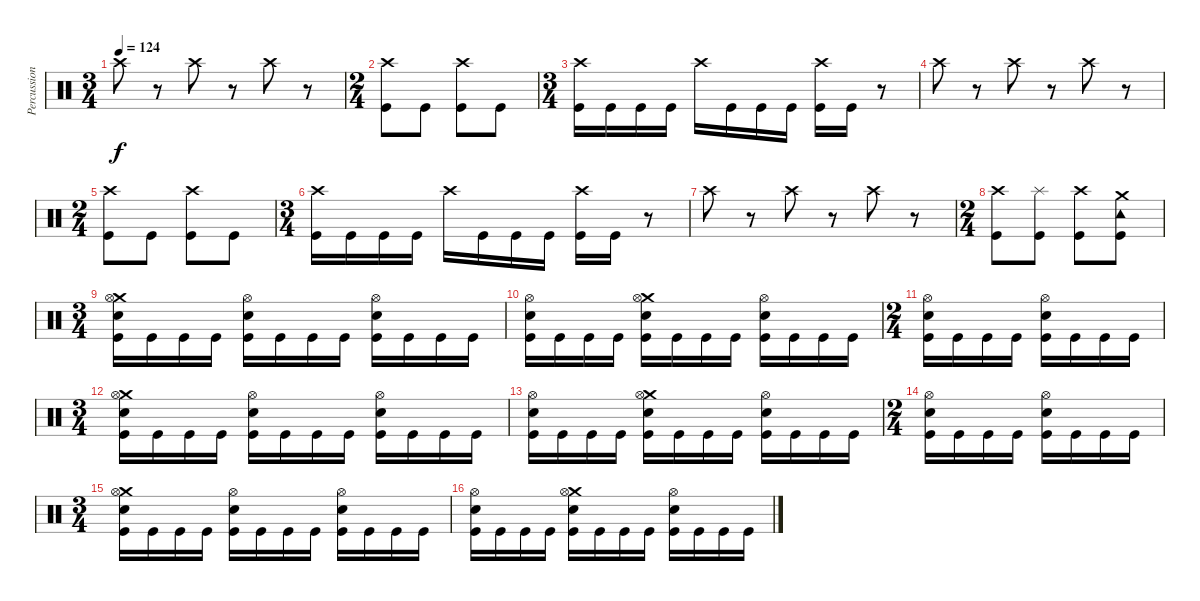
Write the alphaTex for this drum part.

\track ("Percussion" "Percussion") {instrument percussion}
\staff {score}
\articulation defaults
\ts (3 4)
\tempo 124
\clef neutral
\ks c "Crash high (hit)".8{dy f}
r.8 "Crash high (hit)".8 r.8 "Crash high (hit)".8 r.8 |
\ts (2 4)
("Crash high (hit)" "Kick (hit)").8 "Kick (hit)".8 ("Crash high (hit)" "Kick (hit)").8 "Kick (hit)".8 |
\ts (3 4)
("Crash high (hit)" "Kick (hit)").16 "Kick (hit)".16 "Kick (hit)".16 "Kick (hit)".16 "Crash high (hit)".16 "Kick (hit)".16 "Kick (hit)".16 "Kick (hit)".16 ("Crash high (hit)" "Kick (hit)").16 "Kick (hit)".16 r.8 |
"Crash high (hit)".8 r.8 "Crash high (hit)".8 r.8 "Crash high (hit)".8 r.8 |
\ts (2 4)
("Crash high (hit)" "Kick (hit)").8 "Kick (hit)".8 ("Crash high (hit)" "Kick (hit)").8 "Kick (hit)".8 |
\ts (3 4)
("Crash high (hit)" "Kick (hit)").16 "Kick (hit)".16 "Kick (hit)".16 "Kick (hit)".16 "Crash high (hit)".16 "Kick (hit)".16 "Kick (hit)".16 "Kick (hit)".16 ("Crash high (hit)" "Kick (hit)").16 "Kick (hit)".16 r.8 |
"Crash high (hit)".8 r.8 "Crash high (hit)".8 r.8 "Crash high (hit)".8 r.8 |
\ts (2 4)
("Crash high (hit)" "Kick (hit)").8 ("Splash (hit)" "Kick (hit)").8 ("Crash high (hit)" "Kick (hit)").8 ("Tambourine (hit)" "Crash medium (hit)" "Kick (hit)").8 |
\ts (3 4)
("Crash medium (hit)" "Electric Snare (hit)" "Hi-Hat (open)" "Kick (hit)").16 "Kick (hit)".16 "Kick (hit)".16 "Kick (hit)".16 ("Electric Snare (hit)" "Hi-Hat (open)" "Kick (hit)").16 "Kick (hit)".16 "Kick (hit)".16 "Kick (hit)".16 ("Electric Snare (hit)" "Hi-Hat (open)" "Kick (hit)").16 "Kick (hit)".16 "Kick (hit)".16 "Kick (hit)".16 |
("Hi-Hat (open)" "Electric Snare (hit)" "Kick (hit)").16 "Kick (hit)".16 "Kick (hit)".16 "Kick (hit)".16 ("Crash medium (hit)" "Hi-Hat (open)" "Electric Snare (hit)" "Kick (hit)").16 "Kick (hit)".16 "Kick (hit)".16 "Kick (hit)".16 ("Hi-Hat (open)" "Electric Snare (hit)" "Kick (hit)").16 "Kick (hit)".16 "Kick (hit)".16 "Kick (hit)".16 |
\ts (2 4)
("Hi-Hat (open)" "Electric Snare (hit)" "Kick (hit)").16 "Kick (hit)".16 "Kick (hit)".16 "Kick (hit)".16 ("Hi-Hat (open)" "Electric Snare (hit)" "Kick (hit)").16 "Kick (hit)".16 "Kick (hit)".16 "Kick (hit)".16 |
\ts (3 4)
("Crash medium (hit)" "Hi-Hat (open)" "Electric Snare (hit)" "Kick (hit)").16 "Kick (hit)".16 "Kick (hit)".16 "Kick (hit)".16 ("Hi-Hat (open)" "Electric Snare (hit)" "Kick (hit)").16 "Kick (hit)".16 "Kick (hit)".16 "Kick (hit)".16 ("Hi-Hat (open)" "Electric Snare (hit)" "Kick (hit)").16 "Kick (hit)".16 "Kick (hit)".16 "Kick (hit)".16 |
("Hi-Hat (open)" "Electric Snare (hit)" "Kick (hit)").16 "Kick (hit)".16 "Kick (hit)".16 "Kick (hit)".16 ("Crash medium (hit)" "Hi-Hat (open)" "Electric Snare (hit)" "Kick (hit)").16 "Kick (hit)".16 "Kick (hit)".16 "Kick (hit)".16 ("Hi-Hat (open)" "Electric Snare (hit)" "Kick (hit)").16 "Kick (hit)".16 "Kick (hit)".16 "Kick (hit)".16 |
\ts (2 4)
("Hi-Hat (open)" "Electric Snare (hit)" "Kick (hit)").16 "Kick (hit)".16 "Kick (hit)".16 "Kick (hit)".16 ("Hi-Hat (open)" "Electric Snare (hit)" "Kick (hit)").16 "Kick (hit)".16 "Kick (hit)".16 "Kick (hit)".16 |
\ts (3 4)
("Crash medium (hit)" "Electric Snare (hit)" "Hi-Hat (open)" "Kick (hit)").16 "Kick (hit)".16 "Kick (hit)".16 "Kick (hit)".16 ("Electric Snare (hit)" "Hi-Hat (open)" "Kick (hit)").16 "Kick (hit)".16 "Kick (hit)".16 "Kick (hit)".16 ("Electric Snare (hit)" "Hi-Hat (open)" "Kick (hit)").16 "Kick (hit)".16 "Kick (hit)".16 "Kick (hit)".16 |
("Hi-Hat (open)" "Electric Snare (hit)" "Kick (hit)").16 "Kick (hit)".16 "Kick (hit)".16 "Kick (hit)".16 ("Crash medium (hit)" "Hi-Hat (open)" "Electric Snare (hit)" "Kick (hit)").16 "Kick (hit)".16 "Kick (hit)".16 "Kick (hit)".16 ("Hi-Hat (open)" "Electric Snare (hit)" "Kick (hit)").16 "Kick (hit)".16 "Kick (hit)".16 "Kick (hit)".16
